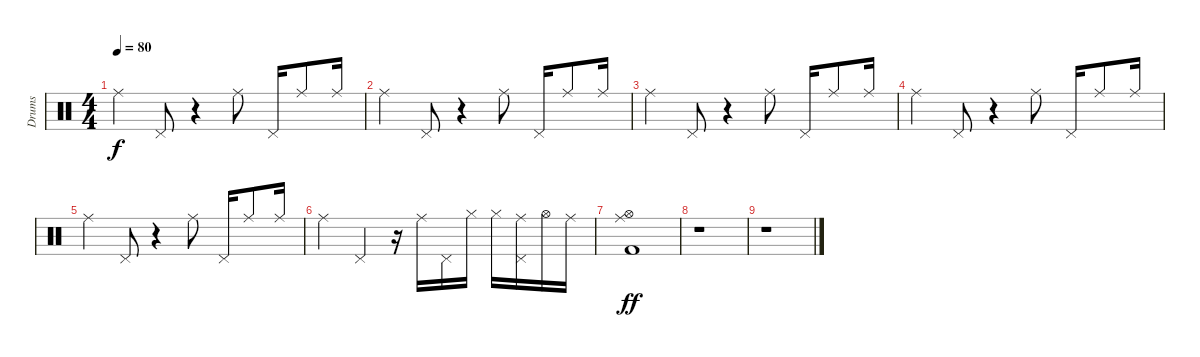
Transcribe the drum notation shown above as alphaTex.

\track ("Drums" "Drums") {instrument percussion}
\staff {score}
\articulation defaults
\ts (4 4)
\tempo 80
\clef neutral
\ks c "Ride (middle)".4{dy f} "Pedal Hi-Hat (hit)".8
r.4 "Ride (middle)".8 "Pedal Hi-Hat (hit)".16 "Ride (middle)".8 "Ride (middle)".16 |
"Ride (middle)".4 "Pedal Hi-Hat (hit)".8 r.4 "Ride (middle)".8 "Pedal Hi-Hat (hit)".16 "Ride (middle)".8 "Ride (middle)".16 |
"Ride (middle)".4 "Pedal Hi-Hat (hit)".8 r.4 "Ride (middle)".8 "Pedal Hi-Hat (hit)".16 "Ride (middle)".8 "Ride (middle)".16 |
"Ride (middle)".4 "Pedal Hi-Hat (hit)".8 r.4 "Ride (middle)".8 "Pedal Hi-Hat (hit)".16 "Ride (middle)".8 "Ride (middle)".16 |
"Ride (middle)".4 "Pedal Hi-Hat (hit)".8 r.4 "Ride (middle)".8 "Pedal Hi-Hat (hit)".16 "Ride (middle)".8 "Ride (middle)".16 |
"Ride (middle)".4 "Pedal Hi-Hat (hit)".4 r.16 "Ride (middle)".16 "Pedal Hi-Hat (hit)".16 "Hi-Hat (closed)".16 "Hi-Hat (closed)".16 ("Ride (middle)" "Pedal Hi-Hat (hit)").16 "Hi-Hat (open)".16 "Ride (middle)".16 |
("Ride (middle)" "Hi-Hat (open)" "Kick (hit) 2").1{dy ff} |
r.1 |
r.1
